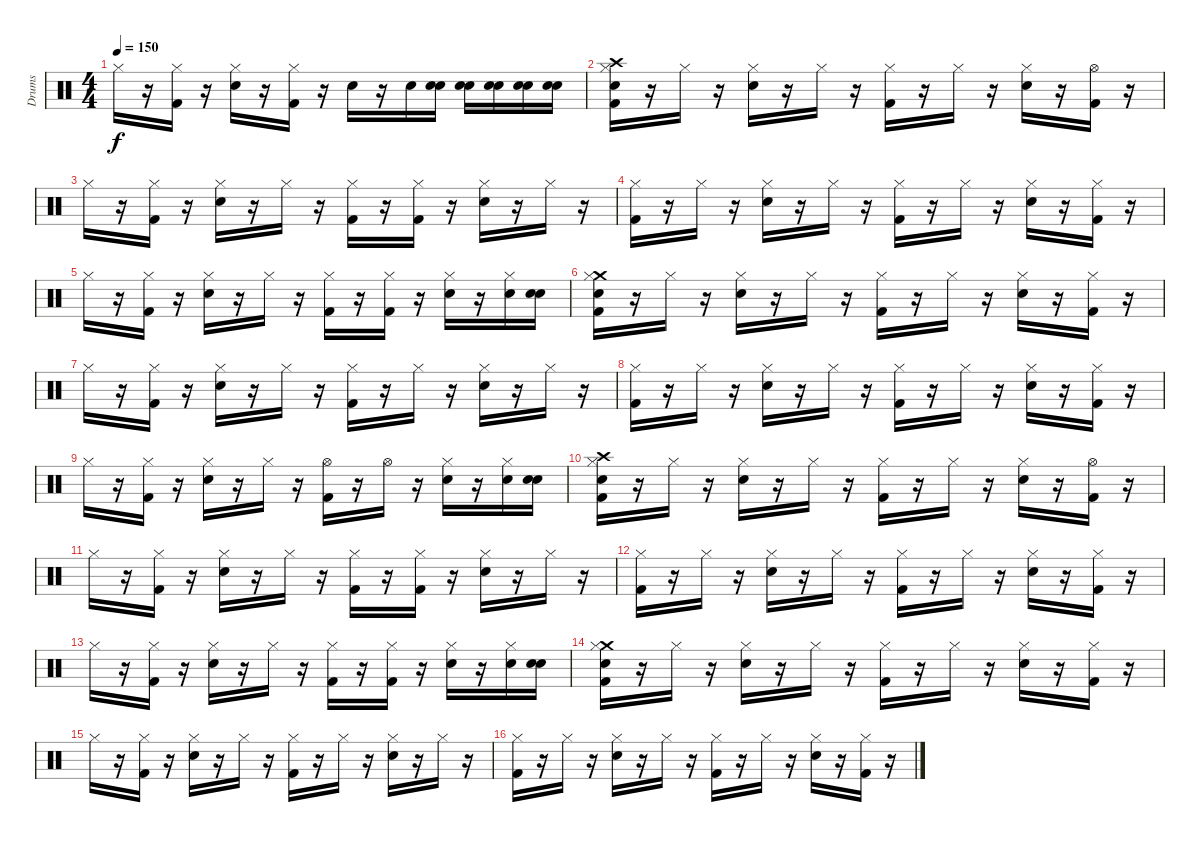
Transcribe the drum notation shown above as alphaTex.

\track ("Drums" "Drums") {instrument percussion}
\staff {score}
\articulation defaults
\ts (4 4)
\tempo 150
\clef neutral
\ks c "Hi-Hat (closed)".16{dy f}
r.16 ("Kick (hit) 2" "Hi-Hat (closed)").16 r.16 ("Snare (hit) 2" "Hi-Hat (closed)").16 r.16 ("Hi-Hat (closed)" "Kick (hit) 2").16 r.16 "Electric Snare (hit)".16 r.16 "Snare (hit) 2".16 ("Snare (hit)" "Snare (hit) 2").16 ("Snare (hit)" "Snare (hit) 2").16 ("Snare (hit)" "Snare (hit) 2").16 ("Snare (hit)" "Snare (hit) 2").16 ("Snare (hit)" "Snare (hit) 2").16 |
("Snare (hit)" "Crash high (hit)" "Kick (hit) 2" "Hi-Hat (closed)").16 r.16 "Hi-Hat (closed)".16 r.16 ("Snare (hit) 2" "Hi-Hat (closed)").16 r.16 "Hi-Hat (closed)".16 r.16 ("Kick (hit) 2" "Hi-Hat (closed)").16 r.16 "Hi-Hat (closed)".16 r.16 ("Snare (hit) 2" "Hi-Hat (closed)").16 r.16 ("Kick (hit) 2" "Hi-Hat (open)").16 r.16 |
"Hi-Hat (closed)".16 r.16 ("Kick (hit) 2" "Hi-Hat (closed)").16 r.16 ("Snare (hit) 2" "Hi-Hat (closed)").16 r.16 "Hi-Hat (closed)".16 r.16 ("Kick (hit) 2" "Hi-Hat (closed)").16 r.16 ("Kick (hit) 2" "Hi-Hat (closed)").16 r.16 ("Snare (hit) 2" "Hi-Hat (closed)").16 r.16 "Hi-Hat (closed)".16 r.16 |
("Kick (hit) 2" "Hi-Hat (closed)").16 r.16 "Hi-Hat (closed)".16 r.16 ("Snare (hit) 2" "Hi-Hat (closed)").16 r.16 "Hi-Hat (closed)".16 r.16 ("Kick (hit) 2" "Hi-Hat (closed)").16 r.16 "Hi-Hat (closed)".16 r.16 ("Snare (hit) 2" "Hi-Hat (closed)").16 r.16 ("Kick (hit) 2" "Hi-Hat (closed)").16 r.16 |
"Hi-Hat (closed)".16 r.16 ("Kick (hit) 2" "Hi-Hat (closed)").16 r.16 ("Snare (hit) 2" "Hi-Hat (closed)").16 r.16 "Hi-Hat (closed)".16 r.16 ("Kick (hit) 2" "Hi-Hat (closed)").16 r.16 ("Kick (hit) 2" "Hi-Hat (closed)").16 r.16 ("Snare (hit) 2" "Hi-Hat (closed)").16 r.16 ("Snare (hit) 2" "Hi-Hat (closed)").16 ("Snare (hit)" "Snare (hit) 2").16 |
("Snare (hit)" "Crash medium (hit)" "Kick (hit) 2" "Hi-Hat (closed)").16 r.16 "Hi-Hat (closed)".16 r.16 ("Snare (hit) 2" "Hi-Hat (closed)").16 r.16 "Hi-Hat (closed)".16 r.16 ("Kick (hit) 2" "Hi-Hat (closed)").16 r.16 "Hi-Hat (closed)".16 r.16 ("Snare (hit) 2" "Hi-Hat (closed)").16 r.16 ("Kick (hit) 2" "Hi-Hat (closed)").16 r.16 |
"Hi-Hat (closed)".16 r.16 ("Kick (hit) 2" "Hi-Hat (closed)").16 r.16 ("Snare (hit) 2" "Hi-Hat (closed)").16 r.16 "Hi-Hat (closed)".16 r.16 ("Kick (hit) 2" "Hi-Hat (closed)").16 r.16 "Hi-Hat (closed)".16 r.16 ("Snare (hit) 2" "Hi-Hat (closed)").16 r.16 "Hi-Hat (closed)".16 r.16 |
("Kick (hit) 2" "Hi-Hat (closed)").16 r.16 "Hi-Hat (closed)".16 r.16 ("Snare (hit) 2" "Hi-Hat (closed)").16 r.16 "Hi-Hat (closed)".16 r.16 ("Kick (hit) 2" "Hi-Hat (closed)").16 r.16 "Hi-Hat (closed)".16 r.16 ("Snare (hit) 2" "Hi-Hat (closed)").16 r.16 ("Kick (hit) 2" "Hi-Hat (closed)").16 r.16 |
"Hi-Hat (closed)".16 r.16 ("Kick (hit) 2" "Hi-Hat (closed)").16 r.16 ("Snare (hit) 2" "Hi-Hat (closed)").16 r.16 "Hi-Hat (closed)".16 r.16 ("Kick (hit) 2" "Hi-Hat (open)").16 r.16 "Hi-Hat (open)".16 r.16 ("Snare (hit) 2" "Hi-Hat (closed)").16 r.16 ("Snare (hit) 2" "Hi-Hat (closed)").16 ("Snare (hit)" "Snare (hit) 2").16 |
("Snare (hit)" "Crash high (hit)" "Kick (hit) 2" "Hi-Hat (closed)").16 r.16 "Hi-Hat (closed)".16 r.16 ("Snare (hit) 2" "Hi-Hat (closed)").16 r.16 "Hi-Hat (closed)".16 r.16 ("Kick (hit) 2" "Hi-Hat (closed)").16 r.16 "Hi-Hat (closed)".16 r.16 ("Snare (hit) 2" "Hi-Hat (closed)").16 r.16 ("Kick (hit) 2" "Hi-Hat (open)").16 r.16 |
"Hi-Hat (closed)".16 r.16 ("Kick (hit) 2" "Hi-Hat (closed)").16 r.16 ("Snare (hit) 2" "Hi-Hat (closed)").16 r.16 "Hi-Hat (closed)".16 r.16 ("Kick (hit) 2" "Hi-Hat (closed)").16 r.16 ("Kick (hit) 2" "Hi-Hat (closed)").16 r.16 ("Snare (hit) 2" "Hi-Hat (closed)").16 r.16 "Hi-Hat (closed)".16 r.16 |
("Kick (hit) 2" "Hi-Hat (closed)").16 r.16 "Hi-Hat (closed)".16 r.16 ("Snare (hit) 2" "Hi-Hat (closed)").16 r.16 "Hi-Hat (closed)".16 r.16 ("Kick (hit) 2" "Hi-Hat (closed)").16 r.16 "Hi-Hat (closed)".16 r.16 ("Snare (hit) 2" "Hi-Hat (closed)").16 r.16 ("Kick (hit) 2" "Hi-Hat (closed)").16 r.16 |
"Hi-Hat (closed)".16 r.16 ("Kick (hit) 2" "Hi-Hat (closed)").16 r.16 ("Snare (hit) 2" "Hi-Hat (closed)").16 r.16 "Hi-Hat (closed)".16 r.16 ("Kick (hit) 2" "Hi-Hat (closed)").16 r.16 ("Kick (hit) 2" "Hi-Hat (closed)").16 r.16 ("Snare (hit) 2" "Hi-Hat (closed)").16 r.16 ("Snare (hit) 2" "Hi-Hat (closed)").16 ("Snare (hit)" "Snare (hit) 2").16 |
("Snare (hit)" "Crash medium (hit)" "Kick (hit) 2" "Hi-Hat (closed)").16 r.16 "Hi-Hat (closed)".16 r.16 ("Snare (hit) 2" "Hi-Hat (closed)").16 r.16 "Hi-Hat (closed)".16 r.16 ("Kick (hit) 2" "Hi-Hat (closed)").16 r.16 "Hi-Hat (closed)".16 r.16 ("Snare (hit) 2" "Hi-Hat (closed)").16 r.16 ("Kick (hit) 2" "Hi-Hat (closed)").16 r.16 |
"Hi-Hat (closed)".16 r.16 ("Kick (hit) 2" "Hi-Hat (closed)").16 r.16 ("Snare (hit) 2" "Hi-Hat (closed)").16 r.16 "Hi-Hat (closed)".16 r.16 ("Kick (hit) 2" "Hi-Hat (closed)").16 r.16 "Hi-Hat (closed)".16 r.16 ("Snare (hit) 2" "Hi-Hat (closed)").16 r.16 "Hi-Hat (closed)".16 r.16 |
("Kick (hit) 2" "Hi-Hat (closed)").16 r.16 "Hi-Hat (closed)".16 r.16 ("Snare (hit) 2" "Hi-Hat (closed)").16 r.16 "Hi-Hat (closed)".16 r.16 ("Kick (hit) 2" "Hi-Hat (closed)").16 r.16 "Hi-Hat (closed)".16 r.16 ("Snare (hit) 2" "Hi-Hat (closed)").16 r.16 ("Kick (hit) 2" "Hi-Hat (closed)").16 r.16
